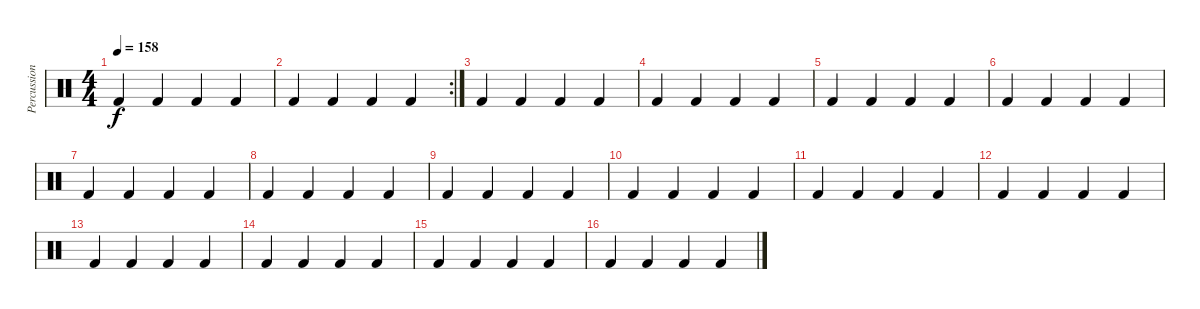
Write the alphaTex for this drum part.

\track ("Percussions" "Percussion") {instrument percussion}
\staff {score}
\articulation defaults
\ts (4 4)
\tempo 158
\clef neutral
\ks c "Kick (hit) 2".4{dy f} "Kick (hit) 2".4 "Kick (hit) 2".4 "Kick (hit) 2".4
|
\rc 2 "Kick (hit) 2".4 "Kick (hit) 2".4 "Kick (hit) 2".4 "Kick (hit) 2".4
|
"Kick (hit) 2".4 "Kick (hit) 2".4 "Kick (hit) 2".4 "Kick (hit) 2".4 |
"Kick (hit) 2".4 "Kick (hit) 2".4 "Kick (hit) 2".4 "Kick (hit) 2".4 |
"Kick (hit) 2".4 "Kick (hit) 2".4 "Kick (hit) 2".4 "Kick (hit) 2".4 |
"Kick (hit) 2".4 "Kick (hit) 2".4 "Kick (hit) 2".4 "Kick (hit) 2".4 |
"Kick (hit) 2".4 "Kick (hit) 2".4 "Kick (hit) 2".4 "Kick (hit) 2".4 |
"Kick (hit) 2".4 "Kick (hit) 2".4 "Kick (hit) 2".4 "Kick (hit) 2".4 |
"Kick (hit) 2".4 "Kick (hit) 2".4 "Kick (hit) 2".4 "Kick (hit) 2".4 |
"Kick (hit) 2".4 "Kick (hit) 2".4 "Kick (hit) 2".4 "Kick (hit) 2".4 |
"Kick (hit) 2".4 "Kick (hit) 2".4 "Kick (hit) 2".4 "Kick (hit) 2".4 |
"Kick (hit) 2".4 "Kick (hit) 2".4 "Kick (hit) 2".4 "Kick (hit) 2".4 |
"Kick (hit) 2".4 "Kick (hit) 2".4 "Kick (hit) 2".4 "Kick (hit) 2".4 |
"Kick (hit) 2".4 "Kick (hit) 2".4 "Kick (hit) 2".4 "Kick (hit) 2".4 |
"Kick (hit) 2".4 "Kick (hit) 2".4 "Kick (hit) 2".4 "Kick (hit) 2".4 |
"Kick (hit) 2".4 "Kick (hit) 2".4 "Kick (hit) 2".4 "Kick (hit) 2".4
